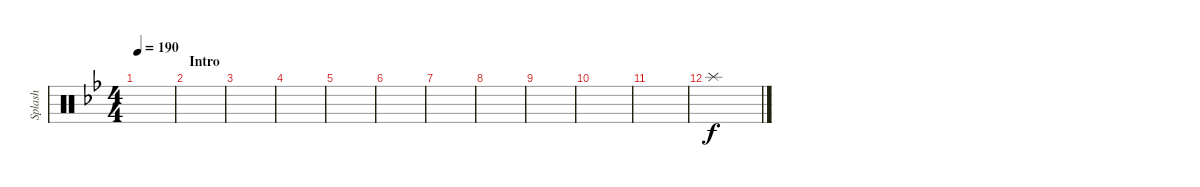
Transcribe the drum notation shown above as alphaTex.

\track ("Splash" "Splash") {instrument percussion}
\staff {score}
\articulation defaults
\ts (4 4)
\tempo 190
\clef neutral
\ks bb
|
\section ("" "Intro")
|
|
|
|
|
|
|
|
|
|
"Splash (hit)".1
